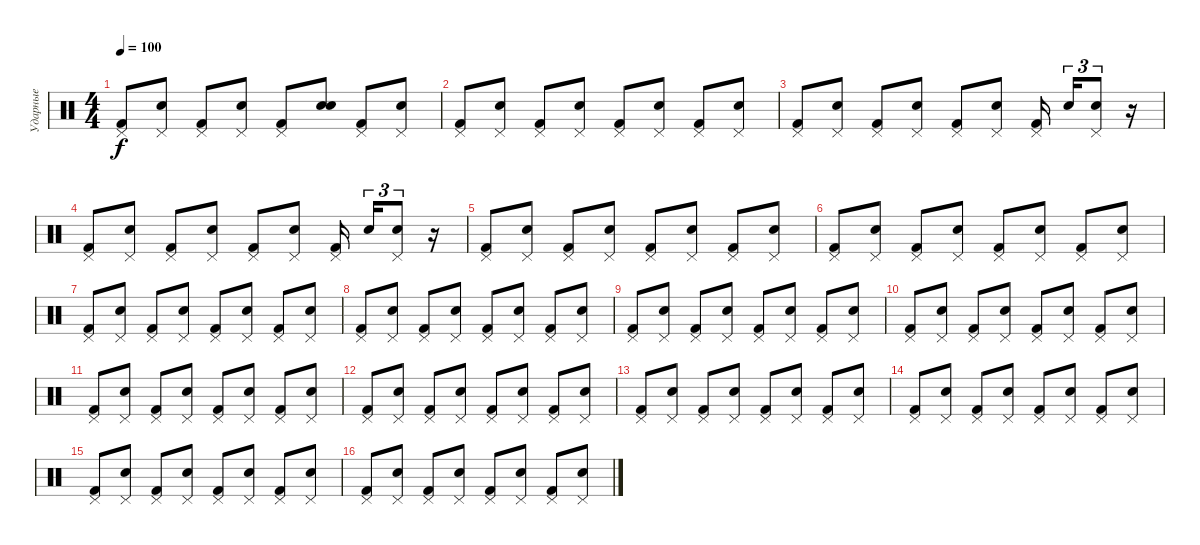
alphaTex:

\track ("Ударные" "Ударные") {instrument percussion}
\staff {score}
\articulation defaults
\ts (4 4)
\tempo 100
\clef neutral
\ks c
("Pedal Hi-Hat (hit)" "Kick (hit) 2").8{dy f} ("Pedal Hi-Hat (hit)" "Electric Snare (hit)").8 ("Pedal Hi-Hat (hit)" "Kick (hit) 2").8 ("Pedal Hi-Hat (hit)" "Electric Snare (hit)").8 ("Pedal Hi-Hat (hit)" "Kick (hit) 2").8 ("Snare (hit)" "Electric Snare (hit)").8 ("Pedal Hi-Hat (hit)" "Kick (hit) 2").8 ("Pedal Hi-Hat (hit)" "Electric Snare (hit)").8 |
("Pedal Hi-Hat (hit)" "Kick (hit) 2").8 ("Pedal Hi-Hat (hit)" "Electric Snare (hit)").8 ("Pedal Hi-Hat (hit)" "Kick (hit) 2").8 ("Pedal Hi-Hat (hit)" "Electric Snare (hit)").8 ("Pedal Hi-Hat (hit)" "Kick (hit) 2").8 ("Pedal Hi-Hat (hit)" "Electric Snare (hit)").8 ("Pedal Hi-Hat (hit)" "Kick (hit) 2").8 ("Pedal Hi-Hat (hit)" "Electric Snare (hit)").8 |
("Pedal Hi-Hat (hit)" "Kick (hit) 2").8 ("Pedal Hi-Hat (hit)" "Electric Snare (hit)").8 ("Pedal Hi-Hat (hit)" "Kick (hit) 2").8 ("Pedal Hi-Hat (hit)" "Electric Snare (hit)").8 ("Pedal Hi-Hat (hit)" "Kick (hit) 2").8 ("Pedal Hi-Hat (hit)" "Electric Snare (hit)").8 ("Pedal Hi-Hat (hit)" "Kick (hit) 2").16{beam splitsecondary} "Electric Snare (hit)".16{tu (3 2)} ("Pedal Hi-Hat (hit)" "Electric Snare (hit)").8{tu (3 2)} r.16 |
("Pedal Hi-Hat (hit)" "Kick (hit) 2").8 ("Pedal Hi-Hat (hit)" "Electric Snare (hit)").8 ("Pedal Hi-Hat (hit)" "Kick (hit) 2").8 ("Pedal Hi-Hat (hit)" "Electric Snare (hit)").8 ("Pedal Hi-Hat (hit)" "Kick (hit) 2").8 ("Pedal Hi-Hat (hit)" "Electric Snare (hit)").8 ("Pedal Hi-Hat (hit)" "Kick (hit) 2").16{beam splitsecondary} "Electric Snare (hit)".16{tu (3 2)} ("Pedal Hi-Hat (hit)" "Electric Snare (hit)").8{tu (3 2)} r.16 |
("Pedal Hi-Hat (hit)" "Kick (hit) 2").8 ("Pedal Hi-Hat (hit)" "Electric Snare (hit)").8 ("Pedal Hi-Hat (hit)" "Kick (hit) 2").8 ("Pedal Hi-Hat (hit)" "Electric Snare (hit)").8 ("Pedal Hi-Hat (hit)" "Kick (hit) 2").8 ("Pedal Hi-Hat (hit)" "Electric Snare (hit)").8 ("Pedal Hi-Hat (hit)" "Kick (hit) 2").8 ("Pedal Hi-Hat (hit)" "Electric Snare (hit)").8 |
("Pedal Hi-Hat (hit)" "Kick (hit) 2").8 ("Pedal Hi-Hat (hit)" "Electric Snare (hit)").8 ("Pedal Hi-Hat (hit)" "Kick (hit) 2").8 ("Pedal Hi-Hat (hit)" "Electric Snare (hit)").8 ("Pedal Hi-Hat (hit)" "Kick (hit) 2").8 ("Pedal Hi-Hat (hit)" "Electric Snare (hit)").8 ("Pedal Hi-Hat (hit)" "Kick (hit) 2").8 ("Pedal Hi-Hat (hit)" "Electric Snare (hit)").8 |
("Pedal Hi-Hat (hit)" "Kick (hit) 2").8 ("Pedal Hi-Hat (hit)" "Electric Snare (hit)").8 ("Pedal Hi-Hat (hit)" "Kick (hit) 2").8 ("Pedal Hi-Hat (hit)" "Electric Snare (hit)").8 ("Pedal Hi-Hat (hit)" "Kick (hit) 2").8 ("Pedal Hi-Hat (hit)" "Electric Snare (hit)").8 ("Pedal Hi-Hat (hit)" "Kick (hit) 2").8 ("Pedal Hi-Hat (hit)" "Electric Snare (hit)").8 |
("Pedal Hi-Hat (hit)" "Kick (hit) 2").8 ("Pedal Hi-Hat (hit)" "Electric Snare (hit)").8 ("Pedal Hi-Hat (hit)" "Kick (hit) 2").8 ("Pedal Hi-Hat (hit)" "Electric Snare (hit)").8 ("Pedal Hi-Hat (hit)" "Kick (hit) 2").8 ("Pedal Hi-Hat (hit)" "Electric Snare (hit)").8 ("Pedal Hi-Hat (hit)" "Kick (hit) 2").8 ("Pedal Hi-Hat (hit)" "Electric Snare (hit)").8 |
("Pedal Hi-Hat (hit)" "Kick (hit) 2").8 ("Pedal Hi-Hat (hit)" "Electric Snare (hit)").8 ("Pedal Hi-Hat (hit)" "Kick (hit) 2").8 ("Pedal Hi-Hat (hit)" "Electric Snare (hit)").8 ("Pedal Hi-Hat (hit)" "Kick (hit) 2").8 ("Pedal Hi-Hat (hit)" "Electric Snare (hit)").8 ("Pedal Hi-Hat (hit)" "Kick (hit) 2").8 ("Pedal Hi-Hat (hit)" "Electric Snare (hit)").8 |
("Pedal Hi-Hat (hit)" "Kick (hit) 2").8 ("Pedal Hi-Hat (hit)" "Electric Snare (hit)").8 ("Pedal Hi-Hat (hit)" "Kick (hit) 2").8 ("Pedal Hi-Hat (hit)" "Electric Snare (hit)").8 ("Pedal Hi-Hat (hit)" "Kick (hit) 2").8 ("Pedal Hi-Hat (hit)" "Electric Snare (hit)").8 ("Pedal Hi-Hat (hit)" "Kick (hit) 2").8 ("Pedal Hi-Hat (hit)" "Electric Snare (hit)").8 |
("Pedal Hi-Hat (hit)" "Kick (hit) 2").8 ("Pedal Hi-Hat (hit)" "Electric Snare (hit)").8 ("Pedal Hi-Hat (hit)" "Kick (hit) 2").8 ("Pedal Hi-Hat (hit)" "Electric Snare (hit)").8 ("Pedal Hi-Hat (hit)" "Kick (hit) 2").8 ("Pedal Hi-Hat (hit)" "Electric Snare (hit)").8 ("Pedal Hi-Hat (hit)" "Kick (hit) 2").8 ("Pedal Hi-Hat (hit)" "Electric Snare (hit)").8 |
("Pedal Hi-Hat (hit)" "Kick (hit) 2").8 ("Pedal Hi-Hat (hit)" "Electric Snare (hit)").8 ("Pedal Hi-Hat (hit)" "Kick (hit) 2").8 ("Pedal Hi-Hat (hit)" "Electric Snare (hit)").8 ("Pedal Hi-Hat (hit)" "Kick (hit) 2").8 ("Pedal Hi-Hat (hit)" "Electric Snare (hit)").8 ("Pedal Hi-Hat (hit)" "Kick (hit) 2").8 ("Pedal Hi-Hat (hit)" "Electric Snare (hit)").8 |
("Pedal Hi-Hat (hit)" "Kick (hit) 2").8 ("Pedal Hi-Hat (hit)" "Electric Snare (hit)").8 ("Pedal Hi-Hat (hit)" "Kick (hit) 2").8 ("Pedal Hi-Hat (hit)" "Electric Snare (hit)").8 ("Pedal Hi-Hat (hit)" "Kick (hit) 2").8 ("Pedal Hi-Hat (hit)" "Electric Snare (hit)").8 ("Pedal Hi-Hat (hit)" "Kick (hit) 2").8 ("Pedal Hi-Hat (hit)" "Electric Snare (hit)").8 |
("Pedal Hi-Hat (hit)" "Kick (hit) 2").8 ("Pedal Hi-Hat (hit)" "Electric Snare (hit)").8 ("Pedal Hi-Hat (hit)" "Kick (hit) 2").8 ("Pedal Hi-Hat (hit)" "Electric Snare (hit)").8 ("Pedal Hi-Hat (hit)" "Kick (hit) 2").8 ("Pedal Hi-Hat (hit)" "Electric Snare (hit)").8 ("Pedal Hi-Hat (hit)" "Kick (hit) 2").8 ("Pedal Hi-Hat (hit)" "Electric Snare (hit)").8 |
("Pedal Hi-Hat (hit)" "Kick (hit) 2").8 ("Pedal Hi-Hat (hit)" "Electric Snare (hit)").8 ("Pedal Hi-Hat (hit)" "Kick (hit) 2").8 ("Pedal Hi-Hat (hit)" "Electric Snare (hit)").8 ("Pedal Hi-Hat (hit)" "Kick (hit) 2").8 ("Pedal Hi-Hat (hit)" "Electric Snare (hit)").8 ("Pedal Hi-Hat (hit)" "Kick (hit) 2").8 ("Pedal Hi-Hat (hit)" "Electric Snare (hit)").8 |
("Pedal Hi-Hat (hit)" "Kick (hit) 2").8 ("Pedal Hi-Hat (hit)" "Electric Snare (hit)").8 ("Pedal Hi-Hat (hit)" "Kick (hit) 2").8 ("Pedal Hi-Hat (hit)" "Electric Snare (hit)").8 ("Pedal Hi-Hat (hit)" "Kick (hit) 2").8 ("Pedal Hi-Hat (hit)" "Electric Snare (hit)").8 ("Pedal Hi-Hat (hit)" "Kick (hit) 2").8 ("Pedal Hi-Hat (hit)" "Electric Snare (hit)").8
